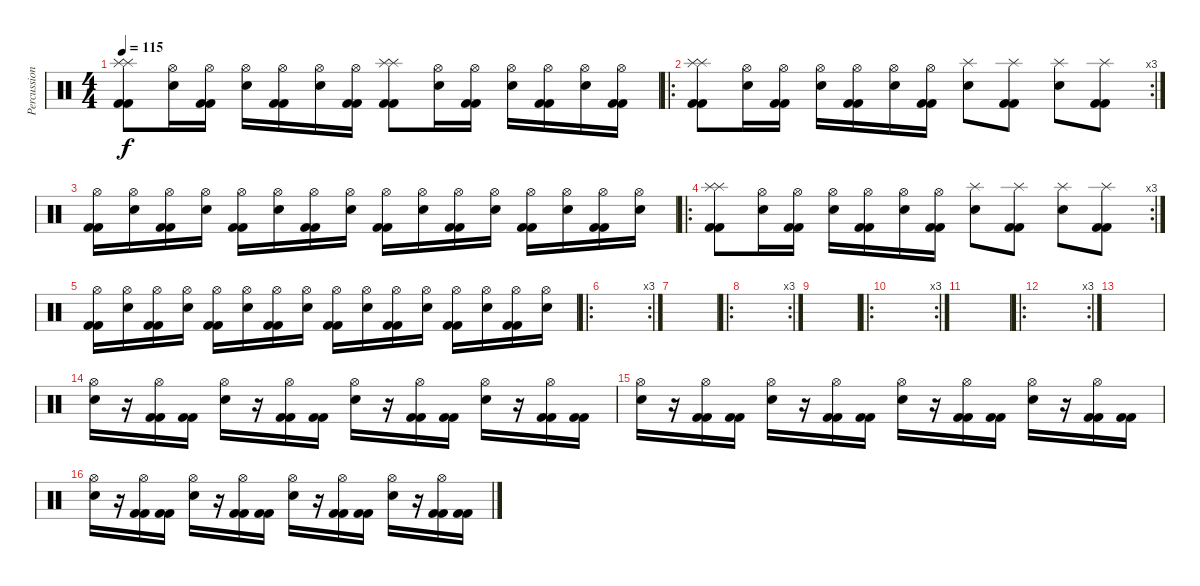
\track ("Percussion" "Percussion") {instrument percussion}
\staff {score}
\articulation defaults
\ts (4 4)
\tempo 115
\clef neutral
\ks c
("Splash (hit)" "Splash (hit)" "Kick (hit) 2" "Kick (hit) 2").8{dy f} ("Hi-Hat (open)" "Electric Snare (hit)").16 ("Hi-Hat (open)" "Kick (hit) 2" "Kick (hit) 2").16 ("Hi-Hat (open)" "Electric Snare (hit)").16 ("Hi-Hat (open)" "Kick (hit) 2" "Kick (hit) 2").16 ("Hi-Hat (open)" "Electric Snare (hit)").16 ("Hi-Hat (open)" "Kick (hit) 2" "Kick (hit) 2").16 ("Splash (hit)" "Splash (hit)" "Kick (hit) 2" "Kick (hit) 2").8 ("Hi-Hat (open)" "Electric Snare (hit)").16 ("Hi-Hat (open)" "Kick (hit) 2" "Kick (hit) 2").16 ("Hi-Hat (open)" "Electric Snare (hit)").16 ("Hi-Hat (open)" "Kick (hit) 2" "Kick (hit) 2").16 ("Hi-Hat (open)" "Electric Snare (hit)").16 ("Hi-Hat (open)" "Kick (hit) 2" "Kick (hit) 2").16 |
\ro
\rc 3
("Splash (hit)" "Splash (hit)" "Kick (hit) 2" "Kick (hit) 2").8 ("Hi-Hat (open)" "Electric Snare (hit)").16 ("Hi-Hat (open)" "Kick (hit) 2" "Kick (hit) 2").16 ("Hi-Hat (open)" "Electric Snare (hit)").16 ("Hi-Hat (open)" "Kick (hit) 2" "Kick (hit) 2").16 ("Hi-Hat (open)" "Electric Snare (hit)").16 ("Hi-Hat (open)" "Kick (hit) 2" "Kick (hit) 2").16 ("Splash (hit)" "Electric Snare (hit)").8 ("Splash (hit)" "Kick (hit) 2" "Kick (hit) 2").8 ("Splash (hit)" "Electric Snare (hit)").8 ("Splash (hit)" "Kick (hit) 2" "Kick (hit) 2").8 |
("Hi-Hat (open)" "Kick (hit) 2" "Kick (hit) 2").16 ("Hi-Hat (open)" "Electric Snare (hit)").16 ("Hi-Hat (open)" "Kick (hit) 2" "Kick (hit) 2").16 ("Hi-Hat (open)" "Electric Snare (hit)").16 ("Hi-Hat (open)" "Kick (hit) 2" "Kick (hit) 2").16 ("Hi-Hat (open)" "Electric Snare (hit)").16 ("Hi-Hat (open)" "Kick (hit) 2" "Kick (hit) 2").16 ("Hi-Hat (open)" "Electric Snare (hit)").16 ("Hi-Hat (open)" "Kick (hit) 2" "Kick (hit) 2").16 ("Hi-Hat (open)" "Electric Snare (hit)").16 ("Hi-Hat (open)" "Kick (hit) 2" "Kick (hit) 2").16 ("Hi-Hat (open)" "Electric Snare (hit)").16 ("Hi-Hat (open)" "Kick (hit) 2" "Kick (hit) 2").16 ("Hi-Hat (open)" "Electric Snare (hit)").16 ("Hi-Hat (open)" "Kick (hit) 2" "Kick (hit) 2").16 ("Hi-Hat (open)" "Electric Snare (hit)").16 |
\ro
\rc 3
("Splash (hit)" "Splash (hit)" "Kick (hit) 2" "Kick (hit) 2").8 ("Hi-Hat (open)" "Electric Snare (hit)").16 ("Hi-Hat (open)" "Kick (hit) 2" "Kick (hit) 2").16 ("Hi-Hat (open)" "Electric Snare (hit)").16 ("Hi-Hat (open)" "Kick (hit) 2" "Kick (hit) 2").16 ("Hi-Hat (open)" "Electric Snare (hit)").16 ("Hi-Hat (open)" "Kick (hit) 2" "Kick (hit) 2").16 ("Splash (hit)" "Electric Snare (hit)").8 ("Splash (hit)" "Kick (hit) 2" "Kick (hit) 2").8 ("Splash (hit)" "Electric Snare (hit)").8 ("Splash (hit)" "Kick (hit) 2" "Kick (hit) 2").8 |
("Hi-Hat (open)" "Kick (hit) 2" "Kick (hit) 2").16 ("Hi-Hat (open)" "Electric Snare (hit)").16 ("Hi-Hat (open)" "Kick (hit) 2" "Kick (hit) 2").16 ("Hi-Hat (open)" "Electric Snare (hit)").16 ("Hi-Hat (open)" "Kick (hit) 2" "Kick (hit) 2").16 ("Hi-Hat (open)" "Electric Snare (hit)").16 ("Hi-Hat (open)" "Kick (hit) 2" "Kick (hit) 2").16 ("Hi-Hat (open)" "Electric Snare (hit)").16 ("Hi-Hat (open)" "Kick (hit) 2" "Kick (hit) 2").16 ("Hi-Hat (open)" "Electric Snare (hit)").16 ("Hi-Hat (open)" "Kick (hit) 2" "Kick (hit) 2").16 ("Hi-Hat (open)" "Electric Snare (hit)").16 ("Hi-Hat (open)" "Kick (hit) 2" "Kick (hit) 2").16 ("Hi-Hat (open)" "Electric Snare (hit)").16 ("Hi-Hat (open)" "Kick (hit) 2" "Kick (hit) 2").16 ("Hi-Hat (open)" "Electric Snare (hit)").16 |
\ro
\rc 3
|
|
\ro
\rc 3
|
|
\ro
\rc 3
|
|
\ro
\rc 3
|
|
("Hi-Hat (open)" "Electric Snare (hit)").16 r.16 ("Hi-Hat (open)" "Kick (hit) 2" "Kick (hit) 2").16 ("Kick (hit) 2" "Kick (hit) 2").16 ("Hi-Hat (open)" "Electric Snare (hit)").16 r.16 ("Hi-Hat (open)" "Kick (hit) 2" "Kick (hit) 2").16 ("Kick (hit) 2" "Kick (hit) 2").16 ("Hi-Hat (open)" "Electric Snare (hit)").16 r.16 ("Hi-Hat (open)" "Kick (hit) 2" "Kick (hit) 2").16 ("Kick (hit) 2" "Kick (hit) 2").16 ("Hi-Hat (open)" "Electric Snare (hit)").16 r.16 ("Hi-Hat (open)" "Kick (hit) 2" "Kick (hit) 2").16 ("Kick (hit) 2" "Kick (hit) 2").16 |
("Hi-Hat (open)" "Electric Snare (hit)").16 r.16 ("Hi-Hat (open)" "Kick (hit) 2" "Kick (hit) 2").16 ("Kick (hit) 2" "Kick (hit) 2").16 ("Hi-Hat (open)" "Electric Snare (hit)").16 r.16 ("Hi-Hat (open)" "Kick (hit) 2" "Kick (hit) 2").16 ("Kick (hit) 2" "Kick (hit) 2").16 ("Hi-Hat (open)" "Electric Snare (hit)").16 r.16 ("Hi-Hat (open)" "Kick (hit) 2" "Kick (hit) 2").16 ("Kick (hit) 2" "Kick (hit) 2").16 ("Hi-Hat (open)" "Electric Snare (hit)").16 r.16 ("Hi-Hat (open)" "Kick (hit) 2" "Kick (hit) 2").16 ("Kick (hit) 2" "Kick (hit) 2").16 |
("Hi-Hat (open)" "Electric Snare (hit)").16 r.16 ("Hi-Hat (open)" "Kick (hit) 2" "Kick (hit) 2").16 ("Kick (hit) 2" "Kick (hit) 2").16 ("Hi-Hat (open)" "Electric Snare (hit)").16 r.16 ("Hi-Hat (open)" "Kick (hit) 2" "Kick (hit) 2").16 ("Kick (hit) 2" "Kick (hit) 2").16 ("Hi-Hat (open)" "Electric Snare (hit)").16 r.16 ("Hi-Hat (open)" "Kick (hit) 2" "Kick (hit) 2").16 ("Kick (hit) 2" "Kick (hit) 2").16 ("Hi-Hat (open)" "Electric Snare (hit)").16 r.16 ("Hi-Hat (open)" "Kick (hit) 2" "Kick (hit) 2").16 ("Kick (hit) 2" "Kick (hit) 2").16
